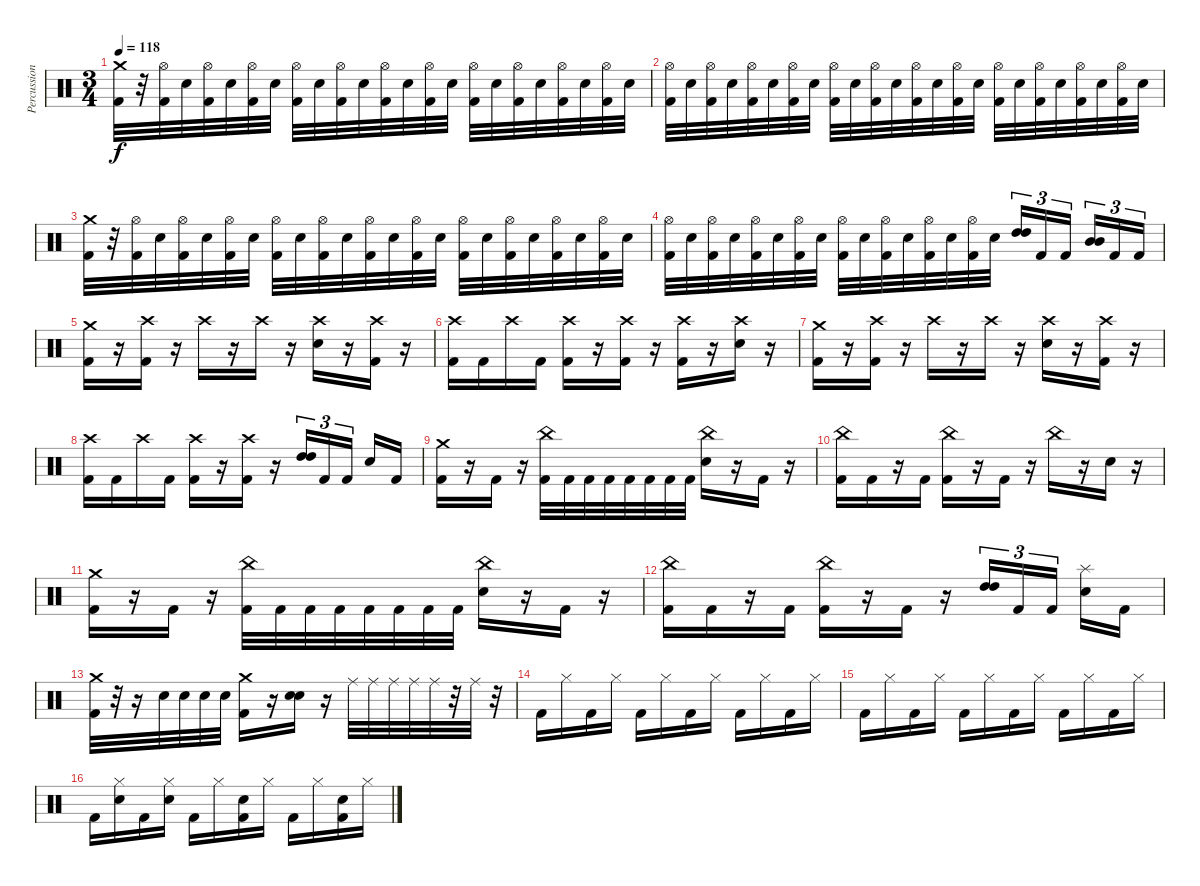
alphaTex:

\track ("Percussion" "Percussion") {instrument percussion}
\staff {score}
\articulation defaults
\ts (3 4)
\tempo 118
\clef neutral
\ks c
("Crash medium (hit)" "Kick (hit) 2").32{dy f} r.32 ("Hi-Hat (open)" "Kick (hit) 2").32 "Electric Snare (hit)".32 ("Hi-Hat (open)" "Kick (hit) 2").32 "Electric Snare (hit)".32 ("Hi-Hat (open)" "Kick (hit) 2").32 "Electric Snare (hit)".32 ("Hi-Hat (open)" "Kick (hit) 2").32 "Electric Snare (hit)".32 ("Hi-Hat (open)" "Kick (hit) 2").32 "Electric Snare (hit)".32 ("Hi-Hat (open)" "Kick (hit) 2").32 "Electric Snare (hit)".32 ("Hi-Hat (open)" "Kick (hit) 2").32 "Electric Snare (hit)".32 ("Hi-Hat (open)" "Kick (hit) 2").32 "Electric Snare (hit)".32 ("Hi-Hat (open)" "Kick (hit) 2").32 "Electric Snare (hit)".32 ("Hi-Hat (open)" "Kick (hit) 2").32 "Electric Snare (hit)".32 ("Hi-Hat (open)" "Kick (hit) 2").32 "Electric Snare (hit)".32 |
("Hi-Hat (open)" "Kick (hit) 2").32 "Electric Snare (hit)".32 ("Hi-Hat (open)" "Kick (hit) 2").32 "Electric Snare (hit)".32 ("Hi-Hat (open)" "Kick (hit) 2").32 "Electric Snare (hit)".32 ("Hi-Hat (open)" "Kick (hit) 2").32 "Electric Snare (hit)".32 ("Hi-Hat (open)" "Kick (hit) 2").32 "Electric Snare (hit)".32 ("Hi-Hat (open)" "Kick (hit) 2").32 "Electric Snare (hit)".32 ("Hi-Hat (open)" "Kick (hit) 2").32 "Electric Snare (hit)".32 ("Hi-Hat (open)" "Kick (hit) 2").32 "Electric Snare (hit)".32 ("Hi-Hat (open)" "Kick (hit) 2").32 "Electric Snare (hit)".32 ("Hi-Hat (open)" "Kick (hit) 2").32 "Electric Snare (hit)".32 ("Hi-Hat (open)" "Kick (hit) 2").32 "Electric Snare (hit)".32 ("Hi-Hat (open)" "Kick (hit) 2").32 "Electric Snare (hit)".32 |
("Crash medium (hit)" "Kick (hit) 2").32 r.32 ("Hi-Hat (open)" "Kick (hit) 2").32 "Electric Snare (hit)".32 ("Hi-Hat (open)" "Kick (hit) 2").32 "Electric Snare (hit)".32 ("Hi-Hat (open)" "Kick (hit) 2").32 "Electric Snare (hit)".32 ("Hi-Hat (open)" "Kick (hit) 2").32 "Electric Snare (hit)".32 ("Hi-Hat (open)" "Kick (hit) 2").32 "Electric Snare (hit)".32 ("Hi-Hat (open)" "Kick (hit) 2").32 "Electric Snare (hit)".32 ("Hi-Hat (open)" "Kick (hit) 2").32 "Electric Snare (hit)".32 ("Hi-Hat (open)" "Kick (hit) 2").32 "Electric Snare (hit)".32 ("Hi-Hat (open)" "Kick (hit) 2").32 "Electric Snare (hit)".32 ("Hi-Hat (open)" "Kick (hit) 2").32 "Electric Snare (hit)".32 ("Hi-Hat (open)" "Kick (hit) 2").32 "Electric Snare (hit)".32 |
("Hi-Hat (open)" "Kick (hit) 2").32 "Electric Snare (hit)".32 ("Hi-Hat (open)" "Kick (hit) 2").32 "Electric Snare (hit)".32 ("Hi-Hat (open)" "Kick (hit) 2").32 "Electric Snare (hit)".32 ("Hi-Hat (open)" "Kick (hit) 2").32 "Electric Snare (hit)".32 ("Hi-Hat (open)" "Kick (hit) 2").32 "Electric Snare (hit)".32 ("Hi-Hat (open)" "Kick (hit) 2").32 "Electric Snare (hit)".32 ("Hi-Hat (open)" "Kick (hit) 2").32 "Electric Snare (hit)".32 ("Hi-Hat (open)" "Kick (hit) 2").32 "Electric Snare (hit)".32 ("High Tom (hit)" "High Tom (hit)").16{tu (3 2)} "Kick (hit) 2".16{tu (3 2)} "Kick (hit) 2".16{tu (3 2) beam splitsecondary} ("Mid Tom (hit)" "Mid Tom (hit)").16{tu (3 2)} "Kick (hit) 2".16{tu (3 2)} "Kick (hit) 2".16{tu (3 2)} |
("Crash medium (hit)" "Kick (hit) 2").16 r.16 ("Crash high (hit)" "Kick (hit) 2").16 r.16 "Crash high (hit)".16 r.16 "Crash high (hit)".16 r.16 ("Crash high (hit)" "Electric Snare (hit)").16 r.16 ("Crash high (hit)" "Kick (hit) 2").16 r.16 |
("Crash high (hit)" "Kick (hit) 2").16 "Kick (hit) 2".16 "Crash high (hit)".16 "Kick (hit) 2".16 ("Crash high (hit)" "Kick (hit) 2").16 r.16 ("Crash high (hit)" "Kick (hit) 2").16 r.16 ("Crash high (hit)" "Kick (hit) 2").16 r.16 ("Crash high (hit)" "Electric Snare (hit)").16 r.16 |
("Crash medium (hit)" "Kick (hit) 2").16 r.16 ("Crash high (hit)" "Kick (hit) 2").16 r.16 "Crash high (hit)".16 r.16 "Crash high (hit)".16 r.16 ("Crash high (hit)" "Electric Snare (hit)").16 r.16 ("Crash high (hit)" "Kick (hit) 2").16 r.16 |
("Crash high (hit)" "Kick (hit) 2").16 "Kick (hit) 2".16 "Crash high (hit)".16 "Kick (hit) 2".16 ("Crash high (hit)" "Kick (hit) 2").16 r.16 ("Crash high (hit)" "Kick (hit) 2").16 r.16 ("High Tom (hit)" "High Tom (hit)").16{tu (3 2)} "Kick (hit) 2".16{tu (3 2)} "Kick (hit) 2".16{tu (3 2) beam splitsecondary} "Electric Snare (hit)".16 "Kick (hit) 2".16 |
("Crash medium (hit)" "Kick (hit) 2").16 r.16 "Kick (hit) 2".16 r.16 ("China (hit)" "Kick (hit) 2").32 "Kick (hit) 2".32 "Kick (hit) 2".32 "Kick (hit) 2".32 "Kick (hit) 2".32 "Kick (hit) 2".32 "Kick (hit) 2".32 "Kick (hit) 2".32 ("China (hit)" "Electric Snare (hit)").16 r.16 "Kick (hit) 2".16 r.16 |
("China (hit)" "Kick (hit) 2").16 "Kick (hit) 2".16 r.16 "Kick (hit) 2".16 ("China (hit)" "Kick (hit) 2").16 r.16 "Kick (hit) 2".16 r.16 "China (hit)".16 r.16 "Electric Snare (hit)".16 r.16 |
("Crash medium (hit)" "Kick (hit) 2").16 r.16 "Kick (hit) 2".16 r.16 ("China (hit)" "Kick (hit) 2").32 "Kick (hit) 2".32 "Kick (hit) 2".32 "Kick (hit) 2".32 "Kick (hit) 2".32 "Kick (hit) 2".32 "Kick (hit) 2".32 "Kick (hit) 2".32 ("China (hit)" "Electric Snare (hit)").16 r.16 "Kick (hit) 2".16 r.16 |
("China (hit)" "Kick (hit) 2").16 "Kick (hit) 2".16 r.16 "Kick (hit) 2".16 ("China (hit)" "Kick (hit) 2").16 r.16 "Kick (hit) 2".16 r.16 ("High Tom (hit)" "High Tom (hit)").16{tu (3 2)} "Kick (hit) 2".16{tu (3 2)} "Kick (hit) 2".16{tu (3 2) beam splitsecondary} ("Splash (hit)" "Electric Snare (hit)").16 "Kick (hit) 2".16 |
("Crash medium (hit)" "Kick (hit) 2").32 r.32 r.16 "Electric Snare (hit)".32 "Electric Snare (hit)".32 "Electric Snare (hit)".32 "Electric Snare (hit)".32 ("Crash medium (hit)" "Kick (hit) 2").16 r.16 ("Electric Snare (hit)" "Electric Snare (hit)").16{bu 60} r.16 "Ride (middle)".32 "Ride (middle)".32 "Ride (middle)".32 "Ride (middle)".32 "Ride (middle)".32 r.32 "Ride (middle)".32 r.32 |
"Kick (hit) 2".16 "Hi-Hat (closed)".16 "Kick (hit) 2".16 "Hi-Hat (closed)".16 "Kick (hit) 2".16 "Hi-Hat (closed)".16 "Kick (hit) 2".16 "Hi-Hat (closed)".16 "Kick (hit) 2".16 "Hi-Hat (closed)".16 "Kick (hit) 2".16 "Hi-Hat (closed)".16 |
"Kick (hit) 2".16 "Hi-Hat (closed)".16 "Kick (hit) 2".16 "Hi-Hat (closed)".16 "Kick (hit) 2".16 "Hi-Hat (closed)".16 "Kick (hit) 2".16 "Hi-Hat (closed)".16 "Kick (hit) 2".16 "Hi-Hat (closed)".16 "Kick (hit) 2".16 "Hi-Hat (closed)".16 |
"Kick (hit) 2".16 ("Hi-Hat (closed)" "Electric Snare (hit)").16 "Kick (hit) 2".16 ("Hi-Hat (closed)" "Electric Snare (hit)").16 "Kick (hit) 2".16 "Hi-Hat (closed)".16 ("Electric Snare (hit)" "Kick (hit) 2").16 "Hi-Hat (closed)".16 "Kick (hit) 2".16 "Hi-Hat (closed)".16 ("Electric Snare (hit)" "Kick (hit) 2").16 "Hi-Hat (closed)".16
